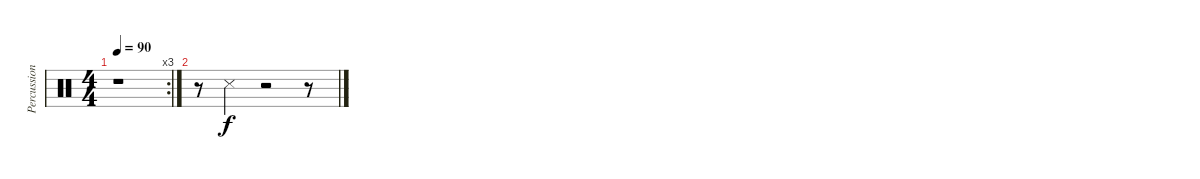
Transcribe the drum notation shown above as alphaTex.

\track ("Percussion" "Percussion") {instrument percussion}
\staff {score}
\articulation defaults
\rc 3
\ts (4 4)
\tempo 90
\clef neutral
\ks c
r.1{dy f} |
r.8 "Snare (side stick) 3".4 r.2 r.8
